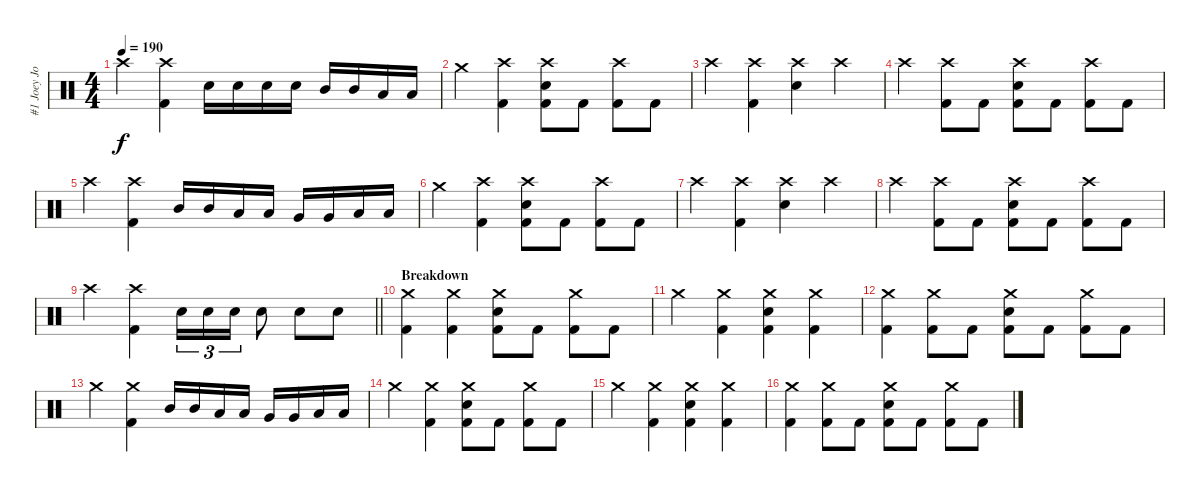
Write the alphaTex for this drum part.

\track ("#1 Joey Jordison" "#1 Joey Jo") {instrument percussion}
\staff {score}
\articulation defaults
\ts (4 4)
\tempo 190
\clef neutral
\ks c "Crash high (hit)".4{dy f}
("Crash high (hit)" "Kick (hit) 2").4 "Electric Snare (hit)".16 "Electric Snare (hit)".16 "Electric Snare (hit)".16 "Electric Snare (hit)".16 "Mid Tom (hit)".16 "Mid Tom (hit)".16 "Low Tom (hit)".16 "Low Tom (hit)".16 |
"Crash medium (hit)".4 ("Crash high (hit)" "Kick (hit) 2").4 ("Crash high (hit)" "Electric Snare (hit)" "Kick (hit) 2").8 "Kick (hit) 2".8 ("Crash high (hit)" "Kick (hit) 2").8 "Kick (hit) 2".8 |
"Crash high (hit)".4 ("Crash high (hit)" "Kick (hit) 2").4 ("Crash high (hit)" "Electric Snare (hit)").4 "Crash high (hit)".4 |
"Crash high (hit)".4 ("Crash high (hit)" "Kick (hit) 2").8 "Kick (hit) 2".8 ("Crash high (hit)" "Electric Snare (hit)" "Kick (hit) 2").8 "Kick (hit) 2".8 ("Crash high (hit)" "Kick (hit) 2").8 "Kick (hit) 2".8 |
"Crash high (hit)".4 ("Crash high (hit)" "Kick (hit) 2").4 "Mid Tom (hit)".16 "Mid Tom (hit)".16 "Low Tom (hit)".16 "Low Tom (hit)".16 "Very Low Tom (hit)".16 "Very Low Tom (hit)".16 "Low Floor Tom (hit)".16 "Low Floor Tom (hit)".16 |
"Crash medium (hit)".4 ("Crash high (hit)" "Kick (hit) 2").4 ("Crash high (hit)" "Electric Snare (hit)" "Kick (hit) 2").8 "Kick (hit) 2".8 ("Crash high (hit)" "Kick (hit) 2").8 "Kick (hit) 2".8 |
"Crash high (hit)".4 ("Crash high (hit)" "Kick (hit) 2").4 ("Crash high (hit)" "Electric Snare (hit)").4 "Crash high (hit)".4 |
"Crash high (hit)".4 ("Crash high (hit)" "Kick (hit) 2").8 "Kick (hit) 2".8 ("Crash high (hit)" "Electric Snare (hit)" "Kick (hit) 2").8 "Kick (hit) 2".8 ("Crash high (hit)" "Kick (hit) 2").8 "Kick (hit) 2".8 |
\barLineRight lightlight "Crash high (hit)".4
("Crash high (hit)" "Kick (hit) 2").4 "Electric Snare (hit)".16{tu (3 2)} "Electric Snare (hit)".16{tu (3 2)} "Electric Snare (hit)".16{tu (3 2)} "Electric Snare (hit)".8 "Electric Snare (hit)".8 "Electric Snare (hit)".8 |
\section ("" "Breakdown")
("Crash medium (hit)" "Kick (hit) 2").4 ("Crash medium (hit)" "Kick (hit) 2").4 ("Crash medium (hit)" "Electric Snare (hit)" "Kick (hit) 2").8 "Kick (hit) 2".8 ("Crash medium (hit)" "Kick (hit) 2").8 "Kick (hit) 2".8 |
"Crash medium (hit)".4 ("Crash medium (hit)" "Kick (hit) 2").4 ("Crash medium (hit)" "Electric Snare (hit)" "Kick (hit) 2").4 ("Crash medium (hit)" "Kick (hit) 2").4 |
("Crash medium (hit)" "Kick (hit) 2").4 ("Crash medium (hit)" "Kick (hit) 2").8 "Kick (hit) 2".8 ("Crash medium (hit)" "Electric Snare (hit)" "Kick (hit) 2").8 "Kick (hit) 2".8 ("Crash medium (hit)" "Kick (hit) 2").8 "Kick (hit) 2".8 |
"Crash medium (hit)".4 ("Crash medium (hit)" "Kick (hit) 2").4 "Mid Tom (hit)".16 "Mid Tom (hit)".16 "Low Tom (hit)".16 "Low Tom (hit)".16 "Very Low Tom (hit)".16 "Very Low Tom (hit)".16 "Low Floor Tom (hit)".16 "Low Floor Tom (hit)".16 |
"Crash medium (hit)".4 ("Crash medium (hit)" "Kick (hit) 2").4 ("Crash medium (hit)" "Electric Snare (hit)" "Kick (hit) 2").8 "Kick (hit) 2".8 ("Crash medium (hit)" "Kick (hit) 2").8 "Kick (hit) 2".8 |
"Crash medium (hit)".4 ("Crash medium (hit)" "Kick (hit) 2").4 ("Crash medium (hit)" "Electric Snare (hit)" "Kick (hit) 2").4 ("Crash medium (hit)" "Kick (hit) 2").4 |
("Crash medium (hit)" "Kick (hit) 2").4 ("Crash medium (hit)" "Kick (hit) 2").8 "Kick (hit) 2".8 ("Crash medium (hit)" "Electric Snare (hit)" "Kick (hit) 2").8 "Kick (hit) 2".8 ("Crash medium (hit)" "Kick (hit) 2").8 "Kick (hit) 2".8
